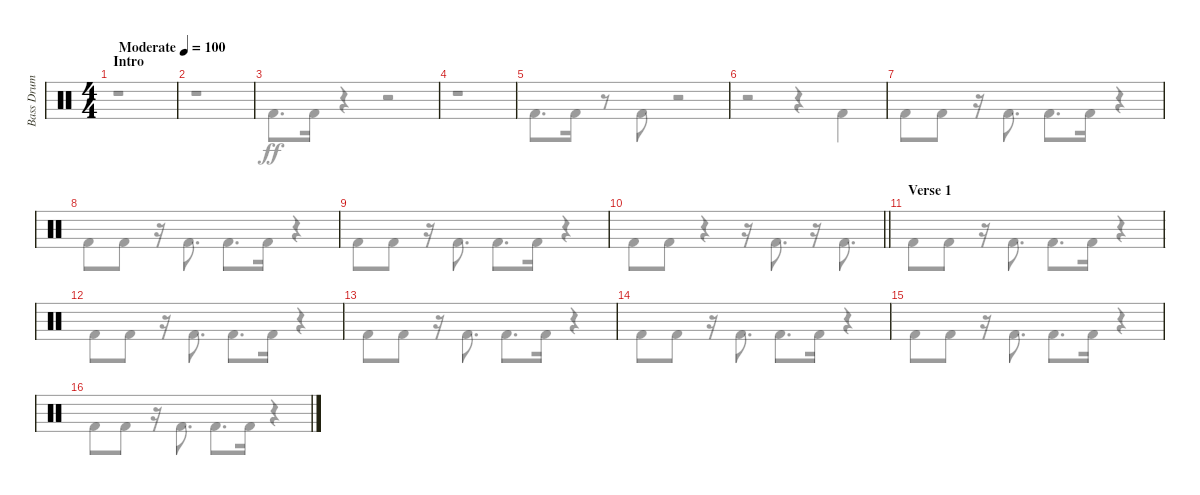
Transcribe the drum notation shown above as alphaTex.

\track ("Bass Drum" "Bass Drum") {instrument percussion}
\staff {score}
\articulation defaults
\voice
\ts (4 4)
\section ("" "Intro")
\tempo (100 "Moderate")
\clef neutral
\ks c
|
|
|
|
|
|
|
|
|
\barLineRight lightlight
|
\section ("" "Verse 1")
|
|
|
|
|
\voice
\clef neutral
\ks c
r.1{dy ff} |
r.1 |
"Kick (hit) 2".8{d} "Kick (hit) 2".16 r.4 r.2 |
r.1 |
"Kick (hit) 2".8{d} "Kick (hit) 2".16 r.8 "Kick (hit) 2".8 r.2 |
r.2 r.4 "Kick (hit) 2".4 |
"Kick (hit) 2".8 "Kick (hit) 2".8 r.16 "Kick (hit) 2".8{d} "Kick (hit) 2".8{d} "Kick (hit) 2".16 r.4 |
"Kick (hit) 2".8 "Kick (hit) 2".8 r.16 "Kick (hit) 2".8{d} "Kick (hit) 2".8{d} "Kick (hit) 2".16 r.4 |
"Kick (hit) 2".8 "Kick (hit) 2".8 r.16 "Kick (hit) 2".8{d} "Kick (hit) 2".8{d} "Kick (hit) 2".16 r.4 |
\barLineRight lightlight "Kick (hit) 2".8 "Kick (hit) 2".8
r.4 r.16 "Kick (hit) 2".8{d} r.16 "Kick (hit) 2".8{d} |
"Kick (hit) 2".8 "Kick (hit) 2".8 r.16 "Kick (hit) 2".8{d} "Kick (hit) 2".8{d} "Kick (hit) 2".16 r.4 |
"Kick (hit) 2".8 "Kick (hit) 2".8 r.16 "Kick (hit) 2".8{d} "Kick (hit) 2".8{d} "Kick (hit) 2".16 r.4 |
"Kick (hit) 2".8 "Kick (hit) 2".8 r.16 "Kick (hit) 2".8{d} "Kick (hit) 2".8{d} "Kick (hit) 2".16 r.4 |
"Kick (hit) 2".8 "Kick (hit) 2".8 r.16 "Kick (hit) 2".8{d} "Kick (hit) 2".8{d} "Kick (hit) 2".16 r.4 |
"Kick (hit) 2".8 "Kick (hit) 2".8 r.16 "Kick (hit) 2".8{d} "Kick (hit) 2".8{d} "Kick (hit) 2".16 r.4 |
"Kick (hit) 2".8 "Kick (hit) 2".8 r.16 "Kick (hit) 2".8{d} "Kick (hit) 2".8{d} "Kick (hit) 2".16 r.4
